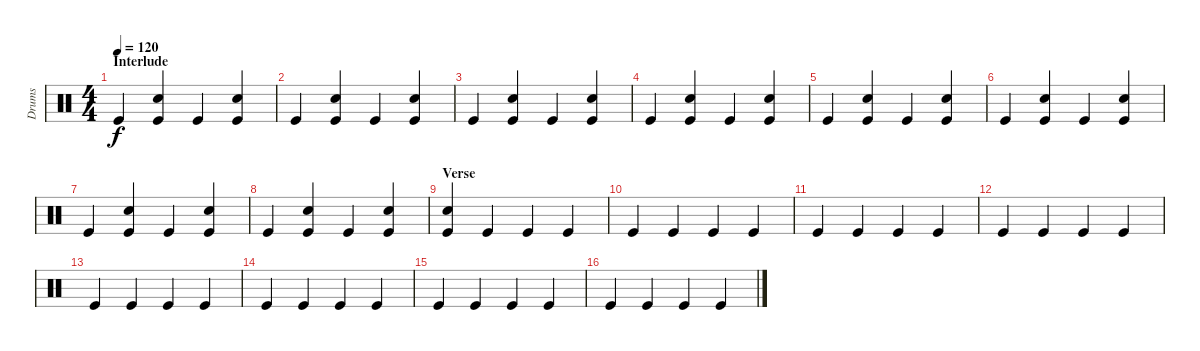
\track ("Drums" "Drums") {instrument percussion}
\staff {score}
\articulation defaults
\ts (4 4)
\section ("" "Interlude")
\tempo 120
\clef neutral
\ks c "Kick (hit)".4{dy f}
("Snare (hit) 2" "Kick (hit)").4 "Kick (hit)".4 ("Snare (hit) 2" "Kick (hit)").4 |
"Kick (hit)".4 ("Snare (hit) 2" "Kick (hit)").4 "Kick (hit)".4 ("Snare (hit) 2" "Kick (hit)").4 |
"Kick (hit)".4 ("Snare (hit) 2" "Kick (hit)").4 "Kick (hit)".4 ("Snare (hit) 2" "Kick (hit)").4 |
"Kick (hit)".4 ("Snare (hit) 2" "Kick (hit)").4 "Kick (hit)".4 ("Snare (hit) 2" "Kick (hit)").4 |
"Kick (hit)".4 ("Snare (hit) 2" "Kick (hit)").4 "Kick (hit)".4 ("Snare (hit) 2" "Kick (hit)").4 |
"Kick (hit)".4 ("Snare (hit) 2" "Kick (hit)").4 "Kick (hit)".4 ("Snare (hit) 2" "Kick (hit)").4 |
"Kick (hit)".4 ("Snare (hit) 2" "Kick (hit)").4 "Kick (hit)".4 ("Snare (hit) 2" "Kick (hit)").4 |
"Kick (hit)".4 ("Snare (hit) 2" "Kick (hit)").4 "Kick (hit)".4 ("Snare (hit) 2" "Kick (hit)").4 |
\section ("" "Verse")
("Snare (hit) 2" "Kick (hit)").4 "Kick (hit)".4 "Kick (hit)".4 "Kick (hit)".4 |
"Kick (hit)".4 "Kick (hit)".4 "Kick (hit)".4 "Kick (hit)".4 |
"Kick (hit)".4 "Kick (hit)".4 "Kick (hit)".4 "Kick (hit)".4 |
"Kick (hit)".4 "Kick (hit)".4 "Kick (hit)".4 "Kick (hit)".4 |
"Kick (hit)".4 "Kick (hit)".4 "Kick (hit)".4 "Kick (hit)".4 |
"Kick (hit)".4 "Kick (hit)".4 "Kick (hit)".4 "Kick (hit)".4 |
"Kick (hit)".4 "Kick (hit)".4 "Kick (hit)".4 "Kick (hit)".4 |
"Kick (hit)".4 "Kick (hit)".4 "Kick (hit)".4 "Kick (hit)".4
